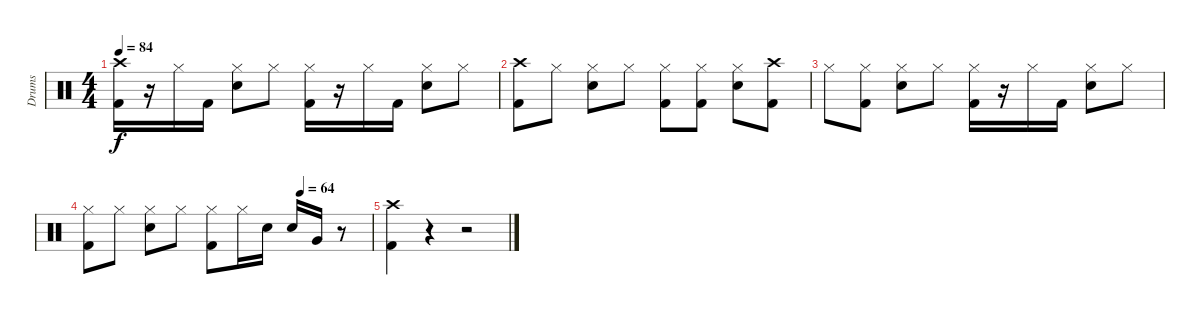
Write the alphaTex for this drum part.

\track ("Drums" "Drums") {instrument percussion}
\staff {score}
\articulation defaults
\ts (4 4)
\tempo 84
\clef neutral
\ks c
("Crash high (hit)" "Kick (hit) 2").16{dy f} r.16 "Hi-Hat (closed)".16 "Kick (hit) 2".16 ("Hi-Hat (closed)" "Electric Snare (hit)").8 "Hi-Hat (closed)".8 ("Hi-Hat (closed)" "Kick (hit) 2").16 r.16 "Hi-Hat (closed)".16 "Kick (hit) 2".16 ("Hi-Hat (closed)" "Electric Snare (hit)").8 "Hi-Hat (closed)".8 |
("Crash high (hit)" "Kick (hit) 2").8 "Hi-Hat (closed)".8 ("Hi-Hat (closed)" "Electric Snare (hit)").8 "Hi-Hat (closed)".8 ("Hi-Hat (closed)" "Kick (hit) 2").8 ("Hi-Hat (closed)" "Kick (hit) 2").8 ("Hi-Hat (closed)" "Electric Snare (hit)").8 ("Crash high (hit)" "Kick (hit) 2").8 |
"Hi-Hat (closed)".8 ("Hi-Hat (closed)" "Kick (hit) 2").8 ("Hi-Hat (closed)" "Electric Snare (hit)").8 "Hi-Hat (closed)".8 ("Hi-Hat (closed)" "Kick (hit) 2").16 r.16 "Hi-Hat (closed)".16 "Kick (hit) 2".16 ("Hi-Hat (closed)" "Electric Snare (hit)").8 "Hi-Hat (closed)".8 |
\tempo (64 0.75)
("Hi-Hat (closed)" "Kick (hit) 2").8 "Hi-Hat (closed)".8 ("Hi-Hat (closed)" "Electric Snare (hit)").8 "Hi-Hat (closed)".8 ("Hi-Hat (closed)" "Kick (hit) 2").8 "Hi-Hat (closed)".16 "Electric Snare (hit)".16 "Electric Snare (hit)".16 "Very Low Tom (hit)".16 r.8 |
("Crash high (hit)" "Kick (hit) 2").4 r.4 r.2
